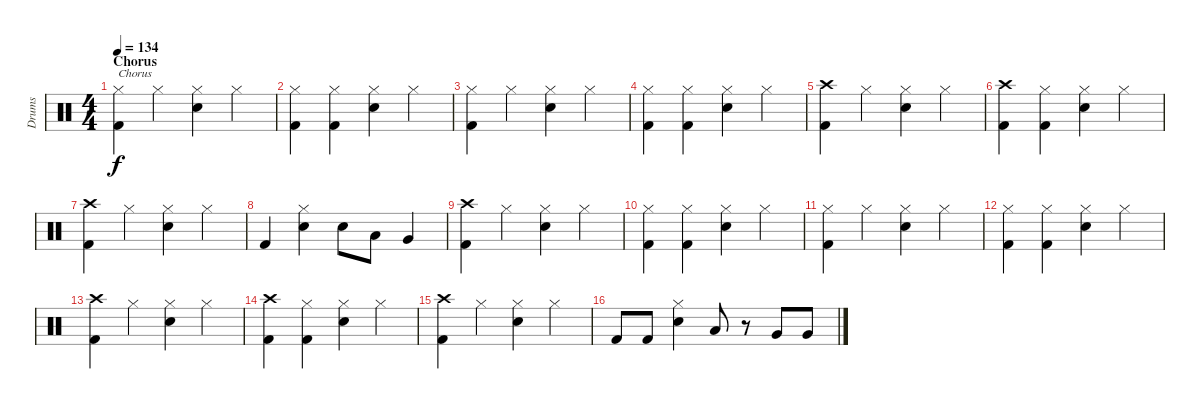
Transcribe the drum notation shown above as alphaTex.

\track ("Drums" "Drums") {instrument percussion}
\staff {score}
\articulation defaults
\ts (4 4)
\section ("" "Chorus")
\tempo 134
\clef neutral
\ks c
("Hi-Hat (closed)" "Kick (hit) 2").4{txt "Chorus" dy f} "Hi-Hat (closed)".4 ("Hi-Hat (closed)" "Electric Snare (hit)").4 "Hi-Hat (closed)".4 |
("Hi-Hat (closed)" "Kick (hit) 2").4 ("Hi-Hat (closed)" "Kick (hit) 2").4 ("Hi-Hat (closed)" "Electric Snare (hit)").4 "Hi-Hat (closed)".4 |
("Hi-Hat (closed)" "Kick (hit) 2").4 "Hi-Hat (closed)".4 ("Hi-Hat (closed)" "Electric Snare (hit)").4 "Hi-Hat (closed)".4 |
("Hi-Hat (closed)" "Kick (hit) 2").4 ("Hi-Hat (closed)" "Kick (hit) 2").4 ("Hi-Hat (closed)" "Electric Snare (hit)").4 "Hi-Hat (closed)".4 |
("Crash high (hit)" "Kick (hit) 2").4 "Hi-Hat (closed)".4 ("Hi-Hat (closed)" "Electric Snare (hit)").4 "Hi-Hat (closed)".4 |
("Crash high (hit)" "Kick (hit) 2").4 ("Hi-Hat (closed)" "Kick (hit) 2").4 ("Hi-Hat (closed)" "Electric Snare (hit)").4 "Hi-Hat (closed)".4 |
("Crash high (hit)" "Kick (hit) 2").4 "Hi-Hat (closed)".4 ("Hi-Hat (closed)" "Electric Snare (hit)").4 "Hi-Hat (closed)".4 |
"Kick (hit) 2".4 ("Hi-Hat (closed)" "Electric Snare (hit)").4 "Electric Snare (hit)".8 "Low Tom (hit)".8 "Very Low Tom (hit)".4 |
("Crash high (hit)" "Kick (hit) 2").4 "Hi-Hat (closed)".4 ("Hi-Hat (closed)" "Electric Snare (hit)").4 "Hi-Hat (closed)".4 |
("Hi-Hat (closed)" "Kick (hit) 2").4 ("Hi-Hat (closed)" "Kick (hit) 2").4 ("Hi-Hat (closed)" "Electric Snare (hit)").4 "Hi-Hat (closed)".4 |
("Hi-Hat (closed)" "Kick (hit) 2").4 "Hi-Hat (closed)".4 ("Hi-Hat (closed)" "Electric Snare (hit)").4 "Hi-Hat (closed)".4 |
("Hi-Hat (closed)" "Kick (hit) 2").4 ("Hi-Hat (closed)" "Kick (hit) 2").4 ("Hi-Hat (closed)" "Electric Snare (hit)").4 "Hi-Hat (closed)".4 |
("Crash high (hit)" "Kick (hit) 2").4 "Hi-Hat (closed)".4 ("Hi-Hat (closed)" "Electric Snare (hit)").4 "Hi-Hat (closed)".4 |
("Crash high (hit)" "Kick (hit) 2").4 ("Hi-Hat (closed)" "Kick (hit) 2").4 ("Hi-Hat (closed)" "Electric Snare (hit)").4 "Hi-Hat (closed)".4 |
("Crash high (hit)" "Kick (hit) 2").4 "Hi-Hat (closed)".4 ("Hi-Hat (closed)" "Electric Snare (hit)").4 "Hi-Hat (closed)".4 |
"Kick (hit) 2".8 "Kick (hit) 2".8 ("Hi-Hat (closed)" "Electric Snare (hit)").4 "Low Tom (hit)".8 r.8 "Very Low Tom (hit)".8 "Very Low Tom (hit)".8
